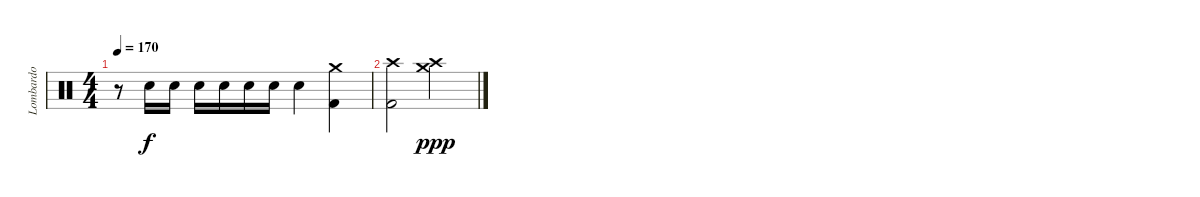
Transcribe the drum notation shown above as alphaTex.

\track ("Lombardo" "Lombardo") {instrument percussion}
\staff {score}
\articulation defaults
\ts (4 4)
\tempo 170
\clef neutral
\ks c
r.8{dy f} "Electric Snare (hit)".16 "Electric Snare (hit)".16 "Electric Snare (hit)".16 "Electric Snare (hit)".16 "Electric Snare (hit)".16 "Electric Snare (hit)".16 "Electric Snare (hit)".4 ("Crash medium (hit)" "Kick (hit) 2").4 |
("Crash high (hit)" "Kick (hit) 2").2 ("Crash medium (hit)" "Crash high (hit)").2{dy ppp}
